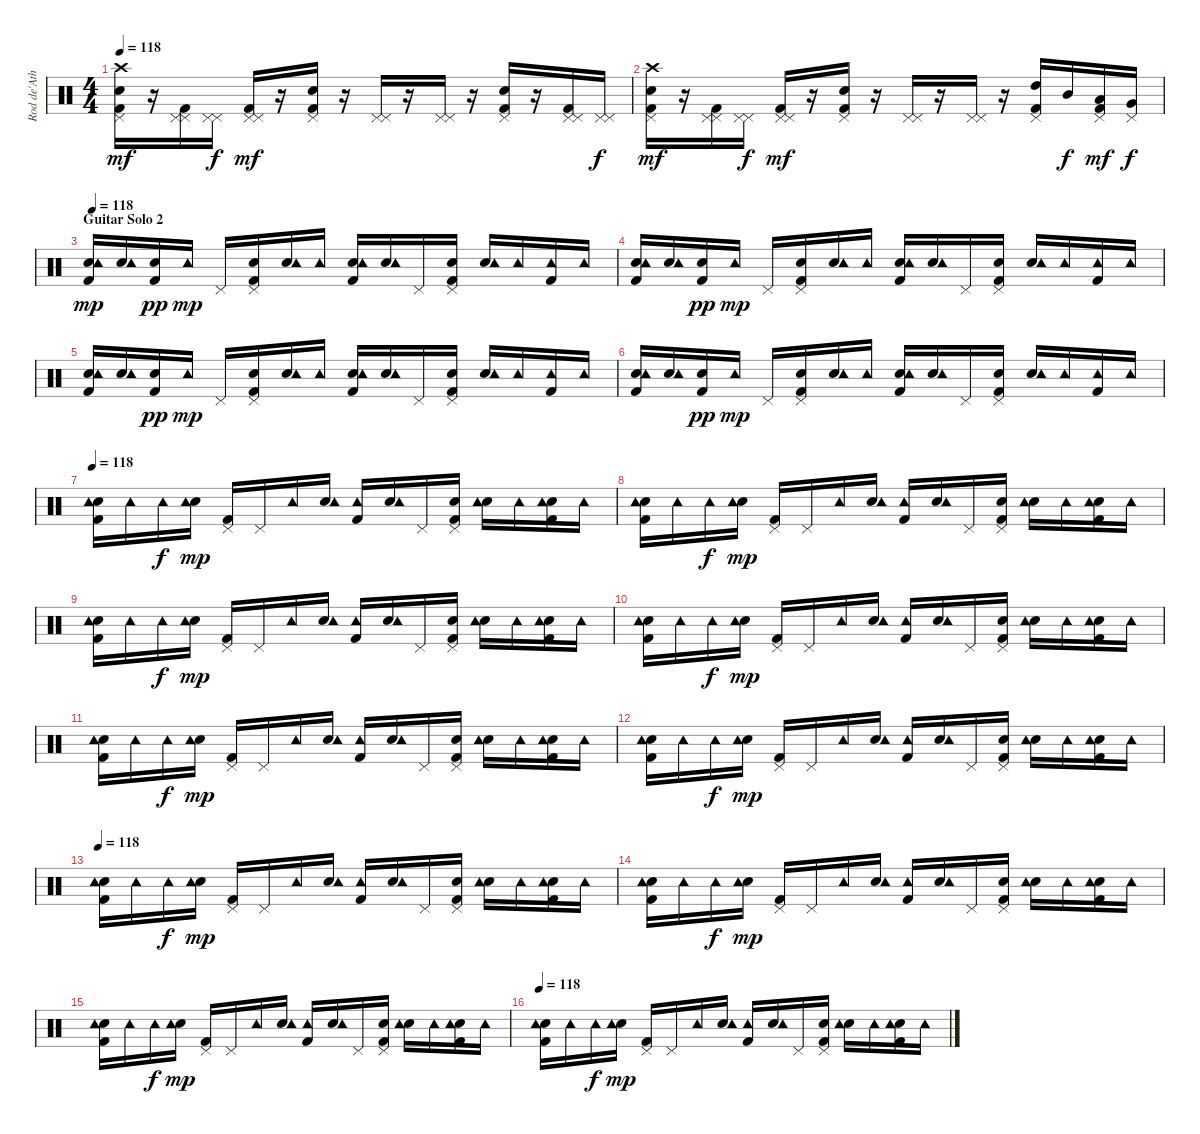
\track ("Rod de'Ath" "Rod de'Ath") {instrument percussion}
\staff {score}
\articulation defaults
\ts (4 4)
\tempo 118
\clef neutral
\ks c
("Crash high (hit)" "Snare (hit) 2" "Pedal Hi-Hat (hit)" "Kick (hit) 2").16{dy mf} r.16 ("Pedal Hi-Hat (hit)" "Pedal Hi-Hat (hit)" "Kick (hit) 2").16 ("Pedal Hi-Hat (hit)" "Pedal Hi-Hat (hit)").16{dy f} ("Pedal Hi-Hat (hit)" "Pedal Hi-Hat (hit)" "Kick (hit) 2").16{dy mf} r.16 ("Snare (hit) 2" "Pedal Hi-Hat (hit)" "Kick (hit) 2").16 r.16 ("Pedal Hi-Hat (hit)" "Pedal Hi-Hat (hit)").16 r.16 ("Pedal Hi-Hat (hit)" "Pedal Hi-Hat (hit)").16 r.16 ("Snare (hit) 2" "Pedal Hi-Hat (hit)" "Kick (hit) 2").16 r.16 ("Pedal Hi-Hat (hit)" "Pedal Hi-Hat (hit)" "Kick (hit) 2").16 ("Pedal Hi-Hat (hit)" "Pedal Hi-Hat (hit)").16{dy f} |
("Crash high (hit)" "Snare (hit) 2" "Pedal Hi-Hat (hit)" "Kick (hit) 2").16{dy mf} r.16 ("Pedal Hi-Hat (hit)" "Pedal Hi-Hat (hit)" "Kick (hit) 2").16 ("Pedal Hi-Hat (hit)" "Pedal Hi-Hat (hit)").16{dy f} ("Pedal Hi-Hat (hit)" "Pedal Hi-Hat (hit)" "Kick (hit) 2").16{dy mf} r.16 ("Snare (hit) 2" "Pedal Hi-Hat (hit)" "Kick (hit) 2").16{volume 12} r.16 ("Pedal Hi-Hat (hit)" "Pedal Hi-Hat (hit)").16 r.16 ("Pedal Hi-Hat (hit)" "Pedal Hi-Hat (hit)").16 r.16 ("High Tom (hit)" "Pedal Hi-Hat (hit)" "Kick (hit) 2").16 "Mid Tom (hit)".16{dy f} ("Low Tom (hit)" "Pedal Hi-Hat (hit)" "Kick (hit) 2").16{dy mf} ("Very Low Tom (hit)" "Pedal Hi-Hat (hit)").16{dy f} |
\section ("" "Guitar Solo 2")
\tempo 118
("Snare (hit) 2" "Tambourine (hit)" "Kick (hit) 2").16{dy mp} ("Snare (hit) 2" "Tambourine (hit)").16 ("Snare (hit) 2" "Kick (hit) 2").16{dy pp} "Tambourine (hit)".16{dy mp} "Pedal Hi-Hat (hit)".16 ("Snare (hit) 2" "Pedal Hi-Hat (hit)" "Kick (hit) 2").16 ("Snare (hit) 2" "Tambourine (hit)").16 "Tambourine (hit)".16 ("Snare (hit) 2" "Tambourine (hit)" "Kick (hit) 2").16 ("Snare (hit) 2" "Tambourine (hit)").16 "Pedal Hi-Hat (hit)".16 ("Snare (hit) 2" "Pedal Hi-Hat (hit)" "Kick (hit) 2").16 ("Snare (hit) 2" "Tambourine (hit)").16 "Tambourine (hit)".16 ("Tambourine (hit)" "Kick (hit) 2").16 "Tambourine (hit)".16 |
("Snare (hit) 2" "Tambourine (hit)" "Kick (hit) 2").16 ("Snare (hit) 2" "Tambourine (hit)").16 ("Snare (hit) 2" "Kick (hit) 2").16{dy pp} "Tambourine (hit)".16{dy mp} "Pedal Hi-Hat (hit)".16 ("Snare (hit) 2" "Pedal Hi-Hat (hit)" "Kick (hit) 2").16 ("Snare (hit) 2" "Tambourine (hit)").16 "Tambourine (hit)".16 ("Snare (hit) 2" "Tambourine (hit)" "Kick (hit) 2").16 ("Snare (hit) 2" "Tambourine (hit)").16 "Pedal Hi-Hat (hit)".16 ("Snare (hit) 2" "Pedal Hi-Hat (hit)" "Kick (hit) 2").16 ("Snare (hit) 2" "Tambourine (hit)").16 "Tambourine (hit)".16 ("Tambourine (hit)" "Kick (hit) 2").16 "Tambourine (hit)".16 |
("Snare (hit) 2" "Tambourine (hit)" "Kick (hit) 2").16 ("Snare (hit) 2" "Tambourine (hit)").16 ("Snare (hit) 2" "Kick (hit) 2").16{dy pp} "Tambourine (hit)".16{dy mp} "Pedal Hi-Hat (hit)".16 ("Snare (hit) 2" "Pedal Hi-Hat (hit)" "Kick (hit) 2").16 ("Snare (hit) 2" "Tambourine (hit)").16 "Tambourine (hit)".16 ("Snare (hit) 2" "Tambourine (hit)" "Kick (hit) 2").16 ("Snare (hit) 2" "Tambourine (hit)").16 "Pedal Hi-Hat (hit)".16 ("Snare (hit) 2" "Pedal Hi-Hat (hit)" "Kick (hit) 2").16 ("Snare (hit) 2" "Tambourine (hit)").16 "Tambourine (hit)".16 ("Tambourine (hit)" "Kick (hit) 2").16 "Tambourine (hit)".16 |
("Snare (hit) 2" "Tambourine (hit)" "Kick (hit) 2").16 ("Snare (hit) 2" "Tambourine (hit)").16 ("Snare (hit) 2" "Kick (hit) 2").16{dy pp} "Tambourine (hit)".16{dy mp} "Pedal Hi-Hat (hit)".16 ("Snare (hit) 2" "Pedal Hi-Hat (hit)" "Kick (hit) 2").16 ("Snare (hit) 2" "Tambourine (hit)").16 "Tambourine (hit)".16 ("Snare (hit) 2" "Tambourine (hit)" "Kick (hit) 2").16 ("Snare (hit) 2" "Tambourine (hit)").16 "Pedal Hi-Hat (hit)".16 ("Snare (hit) 2" "Pedal Hi-Hat (hit)" "Kick (hit) 2").16 ("Snare (hit) 2" "Tambourine (hit)").16 "Tambourine (hit)".16 ("Tambourine (hit)" "Kick (hit) 2").16 "Tambourine (hit)".16 |
\tempo 118
("Snare (hit) 2" "Tambourine (hit)" "Kick (hit) 2").16 "Tambourine (hit)".16 "Tambourine (hit)".16{dy f} ("Snare (hit) 2" "Tambourine (hit)").16{dy mp} ("Pedal Hi-Hat (hit)" "Kick (hit) 2").16 "Pedal Hi-Hat (hit)".16 "Tambourine (hit)".16 ("Snare (hit) 2" "Tambourine (hit)").16 ("Tambourine (hit)" "Kick (hit) 2").16 ("Snare (hit) 2" "Tambourine (hit)").16 "Pedal Hi-Hat (hit)".16 ("Snare (hit) 2" "Pedal Hi-Hat (hit)" "Kick (hit) 2").16 ("Snare (hit) 2" "Tambourine (hit)").16 "Tambourine (hit)".16 ("Snare (hit) 2" "Tambourine (hit)" "Kick (hit) 2").16 "Tambourine (hit)".16 |
("Snare (hit) 2" "Tambourine (hit)" "Kick (hit) 2").16 "Tambourine (hit)".16 "Tambourine (hit)".16{dy f} ("Snare (hit) 2" "Tambourine (hit)").16{dy mp} ("Pedal Hi-Hat (hit)" "Kick (hit) 2").16 "Pedal Hi-Hat (hit)".16 "Tambourine (hit)".16 ("Snare (hit) 2" "Tambourine (hit)").16 ("Tambourine (hit)" "Kick (hit) 2").16 ("Snare (hit) 2" "Tambourine (hit)").16 "Pedal Hi-Hat (hit)".16 ("Snare (hit) 2" "Pedal Hi-Hat (hit)" "Kick (hit) 2").16 ("Snare (hit) 2" "Tambourine (hit)").16 "Tambourine (hit)".16 ("Snare (hit) 2" "Tambourine (hit)" "Kick (hit) 2").16 "Tambourine (hit)".16 |
("Snare (hit) 2" "Tambourine (hit)" "Kick (hit) 2").16 "Tambourine (hit)".16 "Tambourine (hit)".16{dy f} ("Snare (hit) 2" "Tambourine (hit)").16{dy mp} ("Pedal Hi-Hat (hit)" "Kick (hit) 2").16 "Pedal Hi-Hat (hit)".16 "Tambourine (hit)".16 ("Snare (hit) 2" "Tambourine (hit)").16 ("Tambourine (hit)" "Kick (hit) 2").16 ("Snare (hit) 2" "Tambourine (hit)").16 "Pedal Hi-Hat (hit)".16 ("Snare (hit) 2" "Pedal Hi-Hat (hit)" "Kick (hit) 2").16 ("Snare (hit) 2" "Tambourine (hit)").16 "Tambourine (hit)".16 ("Snare (hit) 2" "Tambourine (hit)" "Kick (hit) 2").16 "Tambourine (hit)".16 |
("Snare (hit) 2" "Tambourine (hit)" "Kick (hit) 2").16 "Tambourine (hit)".16 "Tambourine (hit)".16{dy f} ("Snare (hit) 2" "Tambourine (hit)").16{dy mp} ("Pedal Hi-Hat (hit)" "Kick (hit) 2").16 "Pedal Hi-Hat (hit)".16 "Tambourine (hit)".16 ("Snare (hit) 2" "Tambourine (hit)").16 ("Tambourine (hit)" "Kick (hit) 2").16 ("Snare (hit) 2" "Tambourine (hit)").16 "Pedal Hi-Hat (hit)".16 ("Snare (hit) 2" "Pedal Hi-Hat (hit)" "Kick (hit) 2").16 ("Snare (hit) 2" "Tambourine (hit)").16 "Tambourine (hit)".16 ("Snare (hit) 2" "Tambourine (hit)" "Kick (hit) 2").16 "Tambourine (hit)".16 |
("Snare (hit) 2" "Tambourine (hit)" "Kick (hit) 2").16 "Tambourine (hit)".16 "Tambourine (hit)".16{dy f} ("Snare (hit) 2" "Tambourine (hit)").16{dy mp} ("Pedal Hi-Hat (hit)" "Kick (hit) 2").16 "Pedal Hi-Hat (hit)".16 "Tambourine (hit)".16 ("Snare (hit) 2" "Tambourine (hit)").16 ("Tambourine (hit)" "Kick (hit) 2").16 ("Snare (hit) 2" "Tambourine (hit)").16 "Pedal Hi-Hat (hit)".16 ("Snare (hit) 2" "Pedal Hi-Hat (hit)" "Kick (hit) 2").16 ("Snare (hit) 2" "Tambourine (hit)").16 "Tambourine (hit)".16 ("Snare (hit) 2" "Tambourine (hit)" "Kick (hit) 2").16 "Tambourine (hit)".16 |
("Snare (hit) 2" "Tambourine (hit)" "Kick (hit) 2").16 "Tambourine (hit)".16 "Tambourine (hit)".16{dy f} ("Snare (hit) 2" "Tambourine (hit)").16{dy mp} ("Pedal Hi-Hat (hit)" "Kick (hit) 2").16 "Pedal Hi-Hat (hit)".16 "Tambourine (hit)".16 ("Snare (hit) 2" "Tambourine (hit)").16 ("Tambourine (hit)" "Kick (hit) 2").16 ("Snare (hit) 2" "Tambourine (hit)").16 "Pedal Hi-Hat (hit)".16 ("Snare (hit) 2" "Pedal Hi-Hat (hit)" "Kick (hit) 2").16 ("Snare (hit) 2" "Tambourine (hit)").16 "Tambourine (hit)".16 ("Snare (hit) 2" "Tambourine (hit)" "Kick (hit) 2").16 "Tambourine (hit)".16 |
\tempo 118
("Snare (hit) 2" "Tambourine (hit)" "Kick (hit) 2").16 "Tambourine (hit)".16 "Tambourine (hit)".16{dy f} ("Snare (hit) 2" "Tambourine (hit)").16{dy mp} ("Pedal Hi-Hat (hit)" "Kick (hit) 2").16 "Pedal Hi-Hat (hit)".16 "Tambourine (hit)".16 ("Snare (hit) 2" "Tambourine (hit)").16 ("Tambourine (hit)" "Kick (hit) 2").16 ("Snare (hit) 2" "Tambourine (hit)").16 "Pedal Hi-Hat (hit)".16 ("Snare (hit) 2" "Pedal Hi-Hat (hit)" "Kick (hit) 2").16 ("Snare (hit) 2" "Tambourine (hit)").16 "Tambourine (hit)".16 ("Snare (hit) 2" "Tambourine (hit)" "Kick (hit) 2").16 "Tambourine (hit)".16 |
("Snare (hit) 2" "Tambourine (hit)" "Kick (hit) 2").16 "Tambourine (hit)".16 "Tambourine (hit)".16{dy f} ("Snare (hit) 2" "Tambourine (hit)").16{dy mp} ("Pedal Hi-Hat (hit)" "Kick (hit) 2").16 "Pedal Hi-Hat (hit)".16 "Tambourine (hit)".16 ("Snare (hit) 2" "Tambourine (hit)").16 ("Tambourine (hit)" "Kick (hit) 2").16 ("Snare (hit) 2" "Tambourine (hit)").16 "Pedal Hi-Hat (hit)".16 ("Snare (hit) 2" "Pedal Hi-Hat (hit)" "Kick (hit) 2").16 ("Snare (hit) 2" "Tambourine (hit)").16 "Tambourine (hit)".16 ("Snare (hit) 2" "Tambourine (hit)" "Kick (hit) 2").16 "Tambourine (hit)".16 |
("Snare (hit) 2" "Tambourine (hit)" "Kick (hit) 2").16 "Tambourine (hit)".16 "Tambourine (hit)".16{dy f} ("Snare (hit) 2" "Tambourine (hit)").16{dy mp} ("Pedal Hi-Hat (hit)" "Kick (hit) 2").16 "Pedal Hi-Hat (hit)".16 "Tambourine (hit)".16 ("Snare (hit) 2" "Tambourine (hit)").16 ("Tambourine (hit)" "Kick (hit) 2").16 ("Snare (hit) 2" "Tambourine (hit)").16 "Pedal Hi-Hat (hit)".16 ("Snare (hit) 2" "Pedal Hi-Hat (hit)" "Kick (hit) 2").16 ("Snare (hit) 2" "Tambourine (hit)").16 "Tambourine (hit)".16 ("Snare (hit) 2" "Tambourine (hit)" "Kick (hit) 2").16 "Tambourine (hit)".16 |
\tempo 118
("Snare (hit) 2" "Tambourine (hit)" "Kick (hit) 2").16 "Tambourine (hit)".16 "Tambourine (hit)".16{dy f} ("Snare (hit) 2" "Tambourine (hit)").16{dy mp} ("Pedal Hi-Hat (hit)" "Kick (hit) 2").16 "Pedal Hi-Hat (hit)".16 "Tambourine (hit)".16 ("Snare (hit) 2" "Tambourine (hit)").16 ("Tambourine (hit)" "Kick (hit) 2").16 ("Snare (hit) 2" "Tambourine (hit)").16 "Pedal Hi-Hat (hit)".16 ("Snare (hit) 2" "Pedal Hi-Hat (hit)" "Kick (hit) 2").16 ("Snare (hit) 2" "Tambourine (hit)").16 "Tambourine (hit)".16 ("Snare (hit) 2" "Tambourine (hit)" "Kick (hit) 2").16 "Tambourine (hit)".16
